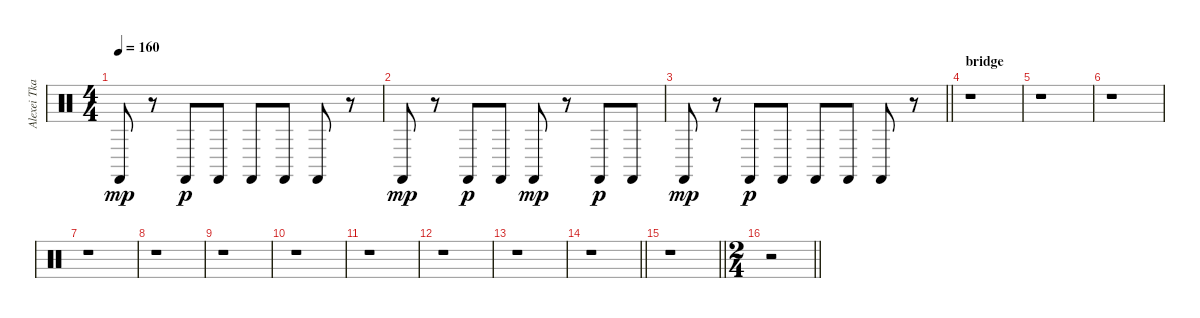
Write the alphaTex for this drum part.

\track ("Alexei Tkachevskiy " "Alexei Tka") {instrument percussion}
\staff {score}
\articulation defaults
\ts (4 4)
\tempo 160
\clef neutral
\ks c "Castanets (hit)".8{dy mp}
r.8 "Castanets (hit)".8{dy p} "Castanets (hit)".8 "Castanets (hit)".8 "Castanets (hit)".8 "Castanets (hit)".8 r.8 |
"Castanets (hit)".8{dy mp} r.8 "Castanets (hit)".8{dy p} "Castanets (hit)".8 "Castanets (hit)".8{dy mp} r.8 "Castanets (hit)".8{dy p} "Castanets (hit)".8 |
\barLineRight lightlight "Castanets (hit)".8{dy mp}
r.8 "Castanets (hit)".8{dy p} "Castanets (hit)".8 "Castanets (hit)".8 "Castanets (hit)".8 "Castanets (hit)".8 r.8 |
\section ("" "bridge")
r.1 |
r.1 |
r.1 |
r.1 |
r.1 |
r.1 |
r.1 |
r.1 |
r.1 |
r.1 |
\barLineRight lightlight
r.1 |
\barLineRight lightlight
r.1 |
\ts (2 4)
\barLineRight lightlight
r.2
